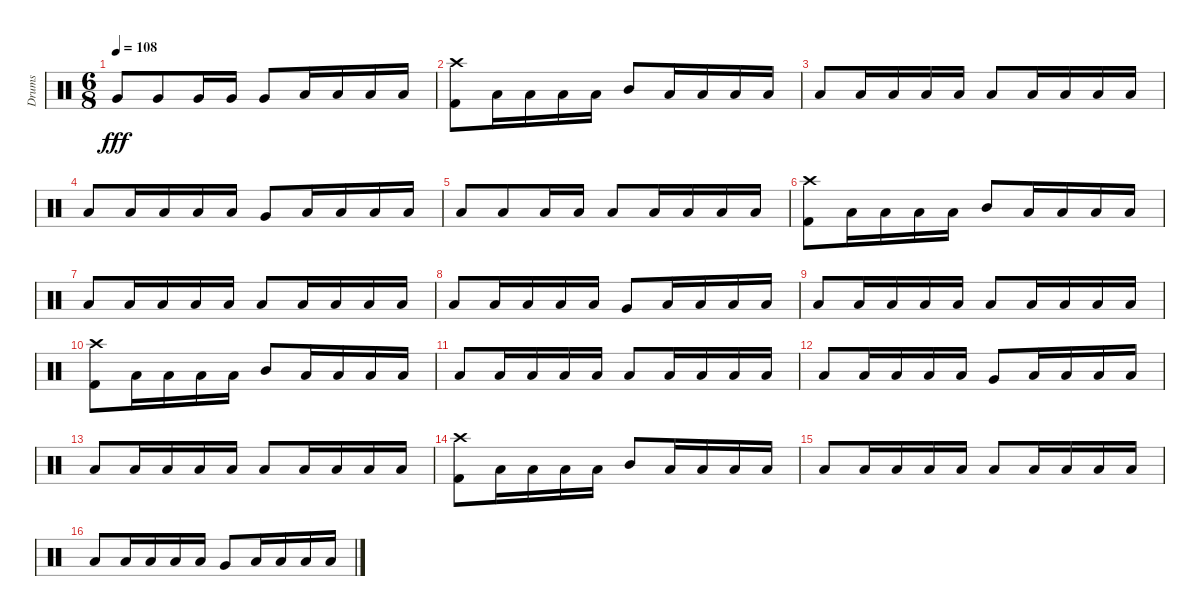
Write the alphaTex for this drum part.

\track ("Drums" "Drums") {instrument percussion}
\staff {score}
\articulation defaults
\ts (6 8)
\tempo 108
\clef neutral
\ks c "Very Low Tom (hit)".8{dy fff} "Very Low Tom (hit)".8 "Very Low Tom (hit)".16 "Very Low Tom (hit)".16 "Very Low Tom (hit)".8 "Low Tom (hit)".16 "Low Tom (hit)".16 "Low Tom (hit)".16 "Low Tom (hit)".16
|
("Crash high (hit)" "Kick (hit) 2").8 "Low Floor Tom (hit)".16 "Low Floor Tom (hit)".16 "Low Floor Tom (hit)".16 "Low Floor Tom (hit)".16 "Mid Tom (hit)".8 "Low Floor Tom (hit)".16 "Low Floor Tom (hit)".16 "Low Floor Tom (hit)".16 "Low Floor Tom (hit)".16 |
"Low Floor Tom (hit)".8 "Low Floor Tom (hit)".16 "Low Floor Tom (hit)".16 "Low Floor Tom (hit)".16 "Low Floor Tom (hit)".16 "Low Tom (hit)".8 "Low Floor Tom (hit)".16 "Low Floor Tom (hit)".16 "Low Floor Tom (hit)".16 "Low Floor Tom (hit)".16 |
"Low Floor Tom (hit)".8 "Low Floor Tom (hit)".16 "Low Floor Tom (hit)".16 "Low Floor Tom (hit)".16 "Low Floor Tom (hit)".16 "Very Low Tom (hit)".8 "Low Floor Tom (hit)".16 "Low Floor Tom (hit)".16 "Low Floor Tom (hit)".16 "Low Floor Tom (hit)".16 |
"Low Floor Tom (hit)".8 "Low Floor Tom (hit)".8 "Low Floor Tom (hit)".16 "Low Floor Tom (hit)".16 "Low Floor Tom (hit)".8 "Low Floor Tom (hit)".16 "Low Floor Tom (hit)".16 "Low Floor Tom (hit)".16 "Low Floor Tom (hit)".16 |
("Crash high (hit)" "Kick (hit) 2").8 "Low Floor Tom (hit)".16 "Low Floor Tom (hit)".16 "Low Floor Tom (hit)".16 "Low Floor Tom (hit)".16 "Mid Tom (hit)".8 "Low Floor Tom (hit)".16 "Low Floor Tom (hit)".16 "Low Floor Tom (hit)".16 "Low Floor Tom (hit)".16 |
"Low Floor Tom (hit)".8 "Low Floor Tom (hit)".16 "Low Floor Tom (hit)".16 "Low Floor Tom (hit)".16 "Low Floor Tom (hit)".16 "Low Tom (hit)".8 "Low Floor Tom (hit)".16 "Low Floor Tom (hit)".16 "Low Floor Tom (hit)".16 "Low Floor Tom (hit)".16 |
"Low Floor Tom (hit)".8 "Low Floor Tom (hit)".16 "Low Floor Tom (hit)".16 "Low Floor Tom (hit)".16 "Low Floor Tom (hit)".16 "Very Low Tom (hit)".8 "Low Floor Tom (hit)".16 "Low Floor Tom (hit)".16 "Low Floor Tom (hit)".16 "Low Floor Tom (hit)".16 |
"Low Floor Tom (hit)".8 "Low Floor Tom (hit)".16 "Low Floor Tom (hit)".16 "Low Floor Tom (hit)".16 "Low Floor Tom (hit)".16 "Low Floor Tom (hit)".8 "Low Floor Tom (hit)".16 "Low Floor Tom (hit)".16 "Low Floor Tom (hit)".16 "Low Floor Tom (hit)".16 |
("Crash high (hit)" "Kick (hit) 2").8 "Low Floor Tom (hit)".16 "Low Floor Tom (hit)".16 "Low Floor Tom (hit)".16 "Low Floor Tom (hit)".16 "Mid Tom (hit)".8 "Low Floor Tom (hit)".16 "Low Floor Tom (hit)".16 "Low Floor Tom (hit)".16 "Low Floor Tom (hit)".16 |
"Low Floor Tom (hit)".8 "Low Floor Tom (hit)".16 "Low Floor Tom (hit)".16 "Low Floor Tom (hit)".16 "Low Floor Tom (hit)".16 "Low Tom (hit)".8 "Low Floor Tom (hit)".16 "Low Floor Tom (hit)".16 "Low Floor Tom (hit)".16 "Low Floor Tom (hit)".16 |
"Low Floor Tom (hit)".8 "Low Floor Tom (hit)".16 "Low Floor Tom (hit)".16 "Low Floor Tom (hit)".16 "Low Floor Tom (hit)".16 "Very Low Tom (hit)".8 "Low Floor Tom (hit)".16 "Low Floor Tom (hit)".16 "Low Floor Tom (hit)".16 "Low Floor Tom (hit)".16 |
"Low Floor Tom (hit)".8 "Low Floor Tom (hit)".16 "Low Floor Tom (hit)".16 "Low Floor Tom (hit)".16 "Low Floor Tom (hit)".16 "Low Floor Tom (hit)".8 "Low Floor Tom (hit)".16 "Low Floor Tom (hit)".16 "Low Floor Tom (hit)".16 "Low Floor Tom (hit)".16 |
("Crash high (hit)" "Kick (hit) 2").8 "Low Floor Tom (hit)".16 "Low Floor Tom (hit)".16 "Low Floor Tom (hit)".16 "Low Floor Tom (hit)".16 "Mid Tom (hit)".8 "Low Floor Tom (hit)".16 "Low Floor Tom (hit)".16 "Low Floor Tom (hit)".16 "Low Floor Tom (hit)".16 |
"Low Floor Tom (hit)".8 "Low Floor Tom (hit)".16 "Low Floor Tom (hit)".16 "Low Floor Tom (hit)".16 "Low Floor Tom (hit)".16 "Low Tom (hit)".8 "Low Floor Tom (hit)".16 "Low Floor Tom (hit)".16 "Low Floor Tom (hit)".16 "Low Floor Tom (hit)".16 |
"Low Floor Tom (hit)".8 "Low Floor Tom (hit)".16 "Low Floor Tom (hit)".16 "Low Floor Tom (hit)".16 "Low Floor Tom (hit)".16 "Very Low Tom (hit)".8 "Low Floor Tom (hit)".16 "Low Floor Tom (hit)".16 "Low Floor Tom (hit)".16 "Low Floor Tom (hit)".16
